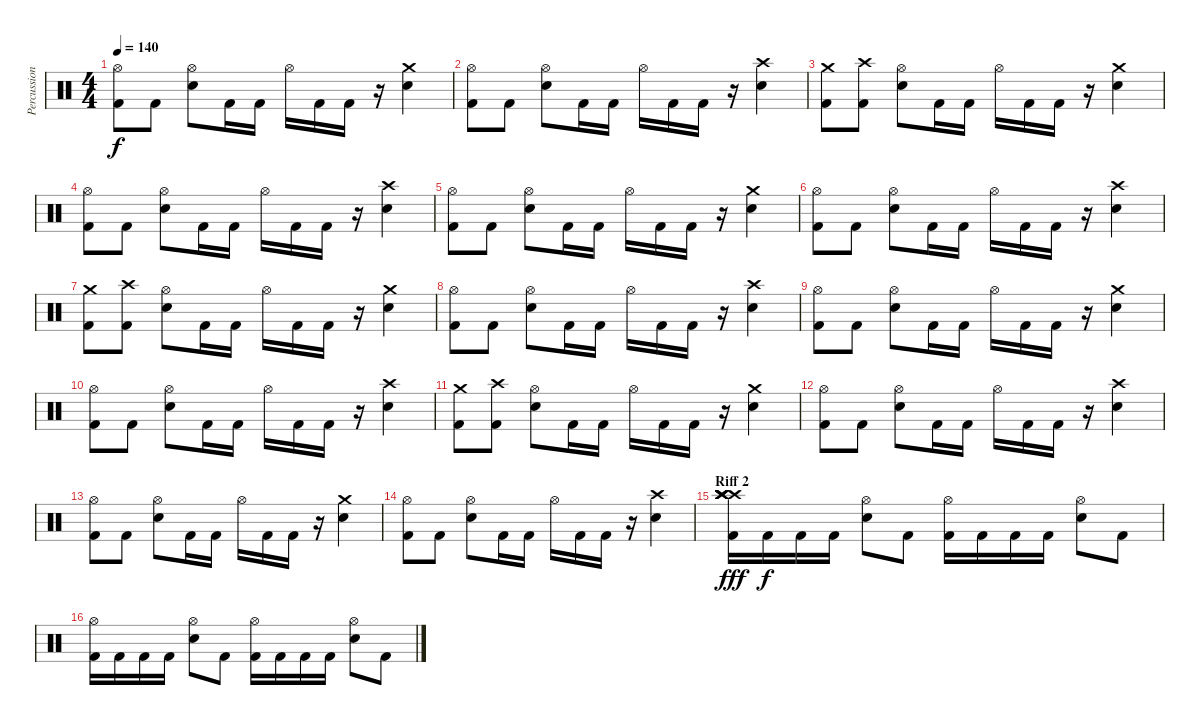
\track ("Percussions" "Percussion") {instrument percussion}
\staff {score}
\articulation defaults
\ts (4 4)
\tempo 140
\clef neutral
\ks c
("Hi-Hat (open)" "Kick (hit) 2").8{dy f} "Kick (hit) 2".8 ("Hi-Hat (open)" "Snare (hit) 2").8 "Kick (hit) 2".16 "Kick (hit) 2".16 "Hi-Hat (open)".16 "Kick (hit) 2".16 "Kick (hit) 2".16 r.16 ("Crash medium (hit)" "Snare (hit) 2").4 |
("Hi-Hat (open)" "Kick (hit) 2").8 "Kick (hit) 2".8 ("Hi-Hat (open)" "Snare (hit) 2").8 "Kick (hit) 2".16 "Kick (hit) 2".16 "Hi-Hat (open)".16 "Kick (hit) 2".16 "Kick (hit) 2".16 r.16 ("Crash high (hit)" "Snare (hit) 2").4 |
("Crash medium (hit)" "Kick (hit) 2").8 ("Crash high (hit)" "Kick (hit) 2").8 ("Hi-Hat (open)" "Snare (hit) 2").8 "Kick (hit) 2".16 "Kick (hit) 2".16 "Hi-Hat (open)".16 "Kick (hit) 2".16 "Kick (hit) 2".16 r.16 ("Crash medium (hit)" "Snare (hit) 2").4 |
("Hi-Hat (open)" "Kick (hit) 2").8 "Kick (hit) 2".8 ("Hi-Hat (open)" "Snare (hit) 2").8 "Kick (hit) 2".16 "Kick (hit) 2".16 "Hi-Hat (open)".16 "Kick (hit) 2".16 "Kick (hit) 2".16 r.16 ("Crash high (hit)" "Snare (hit) 2").4 |
("Hi-Hat (open)" "Kick (hit) 2").8 "Kick (hit) 2".8 ("Hi-Hat (open)" "Snare (hit) 2").8 "Kick (hit) 2".16 "Kick (hit) 2".16 "Hi-Hat (open)".16 "Kick (hit) 2".16 "Kick (hit) 2".16 r.16 ("Crash medium (hit)" "Snare (hit) 2").4 |
("Hi-Hat (open)" "Kick (hit) 2").8 "Kick (hit) 2".8 ("Hi-Hat (open)" "Snare (hit) 2").8 "Kick (hit) 2".16 "Kick (hit) 2".16 "Hi-Hat (open)".16 "Kick (hit) 2".16 "Kick (hit) 2".16 r.16 ("Crash high (hit)" "Snare (hit) 2").4 |
("Crash medium (hit)" "Kick (hit) 2").8 ("Crash high (hit)" "Kick (hit) 2").8 ("Hi-Hat (open)" "Snare (hit) 2").8 "Kick (hit) 2".16 "Kick (hit) 2".16 "Hi-Hat (open)".16 "Kick (hit) 2".16 "Kick (hit) 2".16 r.16 ("Crash medium (hit)" "Snare (hit) 2").4 |
("Hi-Hat (open)" "Kick (hit) 2").8 "Kick (hit) 2".8 ("Hi-Hat (open)" "Snare (hit) 2").8 "Kick (hit) 2".16 "Kick (hit) 2".16 "Hi-Hat (open)".16 "Kick (hit) 2".16 "Kick (hit) 2".16 r.16 ("Crash high (hit)" "Snare (hit) 2").4 |
("Hi-Hat (open)" "Kick (hit) 2").8 "Kick (hit) 2".8 ("Hi-Hat (open)" "Snare (hit) 2").8 "Kick (hit) 2".16 "Kick (hit) 2".16 "Hi-Hat (open)".16 "Kick (hit) 2".16 "Kick (hit) 2".16 r.16 ("Crash medium (hit)" "Snare (hit) 2").4 |
("Hi-Hat (open)" "Kick (hit) 2").8 "Kick (hit) 2".8 ("Hi-Hat (open)" "Snare (hit) 2").8 "Kick (hit) 2".16 "Kick (hit) 2".16 "Hi-Hat (open)".16 "Kick (hit) 2".16 "Kick (hit) 2".16 r.16 ("Crash high (hit)" "Snare (hit) 2").4 |
("Crash medium (hit)" "Kick (hit) 2").8 ("Crash high (hit)" "Kick (hit) 2").8 ("Hi-Hat (open)" "Snare (hit) 2").8 "Kick (hit) 2".16 "Kick (hit) 2".16 "Hi-Hat (open)".16 "Kick (hit) 2".16 "Kick (hit) 2".16 r.16 ("Crash medium (hit)" "Snare (hit) 2").4 |
("Hi-Hat (open)" "Kick (hit) 2").8 "Kick (hit) 2".8 ("Hi-Hat (open)" "Snare (hit) 2").8 "Kick (hit) 2".16 "Kick (hit) 2".16 "Hi-Hat (open)".16 "Kick (hit) 2".16 "Kick (hit) 2".16 r.16 ("Crash high (hit)" "Snare (hit) 2").4 |
("Hi-Hat (open)" "Kick (hit) 2").8 "Kick (hit) 2".8 ("Hi-Hat (open)" "Snare (hit) 2").8 "Kick (hit) 2".16 "Kick (hit) 2".16 "Hi-Hat (open)".16 "Kick (hit) 2".16 "Kick (hit) 2".16 r.16 ("Crash medium (hit)" "Snare (hit) 2").4 |
("Hi-Hat (open)" "Kick (hit) 2").8 "Kick (hit) 2".8 ("Hi-Hat (open)" "Snare (hit) 2").8 "Kick (hit) 2".16 "Kick (hit) 2".16 "Hi-Hat (open)".16 "Kick (hit) 2".16 "Kick (hit) 2".16 r.16 ("Crash high (hit)" "Snare (hit) 2").4 |
\section ("" "Riff 2")
("Crash high (hit)" "Crash high (hit)" "Crash high (hit)" "Crash high (hit)" "Crash high (hit)" "Kick (hit) 2").16{dy fff} "Kick (hit) 2".16{dy f} "Kick (hit) 2".16 "Kick (hit) 2".16 ("Hi-Hat (open)" "Snare (hit) 2").8 "Kick (hit) 2".8 ("Hi-Hat (open)" "Kick (hit) 2").16 "Kick (hit) 2".16 "Kick (hit) 2".16 "Kick (hit) 2".16 ("Hi-Hat (open)" "Snare (hit) 2").8 "Kick (hit) 2".8 |
("Hi-Hat (open)" "Kick (hit) 2").16 "Kick (hit) 2".16 "Kick (hit) 2".16 "Kick (hit) 2".16 ("Hi-Hat (open)" "Snare (hit) 2").8 "Kick (hit) 2".8 ("Hi-Hat (open)" "Kick (hit) 2").16 "Kick (hit) 2".16 "Kick (hit) 2".16 "Kick (hit) 2".16 ("Hi-Hat (open)" "Snare (hit) 2").8 "Kick (hit) 2".8
